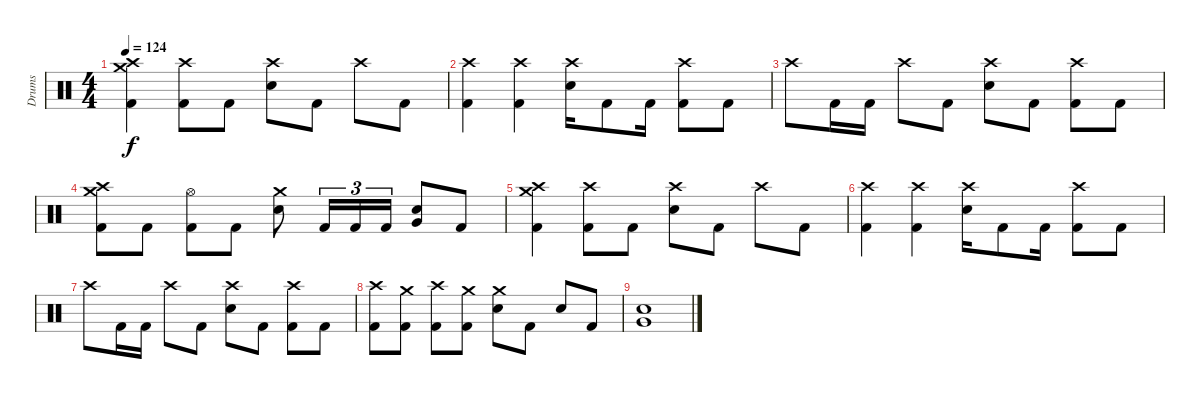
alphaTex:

\track ("Drums" "Drums") {instrument percussion}
\staff {score}
\articulation defaults
\ts (4 4)
\tempo 124
\clef neutral
\ks c
("Crash high (hit)" "Crash medium (hit)" "Kick (hit) 2").4{dy f} ("Crash high (hit)" "Kick (hit) 2").8 "Kick (hit) 2".8 ("Crash high (hit)" "Electric Snare (hit)").8 "Kick (hit) 2".8 "Crash high (hit)".8 "Kick (hit) 2".8 |
("Crash high (hit)" "Kick (hit) 2").4 ("Crash high (hit)" "Kick (hit) 2").4 ("Crash high (hit)" "Electric Snare (hit)").16 "Kick (hit) 2".8 "Kick (hit) 2".16 ("Crash high (hit)" "Kick (hit) 2").8 "Kick (hit) 2".8 |
"Crash high (hit)".8 "Kick (hit) 2".16 "Kick (hit) 2".16 "Crash high (hit)".8 "Kick (hit) 2".8 ("Crash high (hit)" "Electric Snare (hit)").8 "Kick (hit) 2".8 ("Crash high (hit)" "Kick (hit) 2").8 "Kick (hit) 2".8 |
("Crash high (hit)" "Crash medium (hit)" "Kick (hit) 2").8 "Kick (hit) 2".8 ("Hi-Hat (open)" "Kick (hit) 2").8 "Kick (hit) 2".8 ("Crash medium (hit)" "Electric Snare (hit)").8 "Kick (hit) 2".16{tu (3 2)} "Kick (hit) 2".16{tu (3 2)} "Kick (hit) 2".16{tu (3 2)} ("Very Low Tom (hit)" "Electric Snare (hit)").8 "Kick (hit) 2".8 |
("Crash high (hit)" "Crash medium (hit)" "Kick (hit) 2").4 ("Crash high (hit)" "Kick (hit) 2").8 "Kick (hit) 2".8 ("Crash high (hit)" "Electric Snare (hit)").8 "Kick (hit) 2".8 "Crash high (hit)".8 "Kick (hit) 2".8 |
("Crash high (hit)" "Kick (hit) 2").4 ("Crash high (hit)" "Kick (hit) 2").4 ("Crash high (hit)" "Electric Snare (hit)").16 "Kick (hit) 2".8 "Kick (hit) 2".16 ("Crash high (hit)" "Kick (hit) 2").8 "Kick (hit) 2".8 |
"Crash high (hit)".8 "Kick (hit) 2".16 "Kick (hit) 2".16 "Crash high (hit)".8 "Kick (hit) 2".8 ("Crash high (hit)" "Electric Snare (hit)").8 "Kick (hit) 2".8 ("Crash high (hit)" "Kick (hit) 2").8 "Kick (hit) 2".8 |
("Crash high (hit)" "Kick (hit) 2").8 ("Crash medium (hit)" "Kick (hit) 2").8 ("Crash high (hit)" "Kick (hit) 2").8 ("Crash medium (hit)" "Kick (hit) 2").8 ("Crash medium (hit)" "Electric Snare (hit)").8 "Kick (hit) 2".8 "Electric Snare (hit)".8 "Kick (hit) 2".8 |
("Very Low Tom (hit)" "Electric Snare (hit)").1
